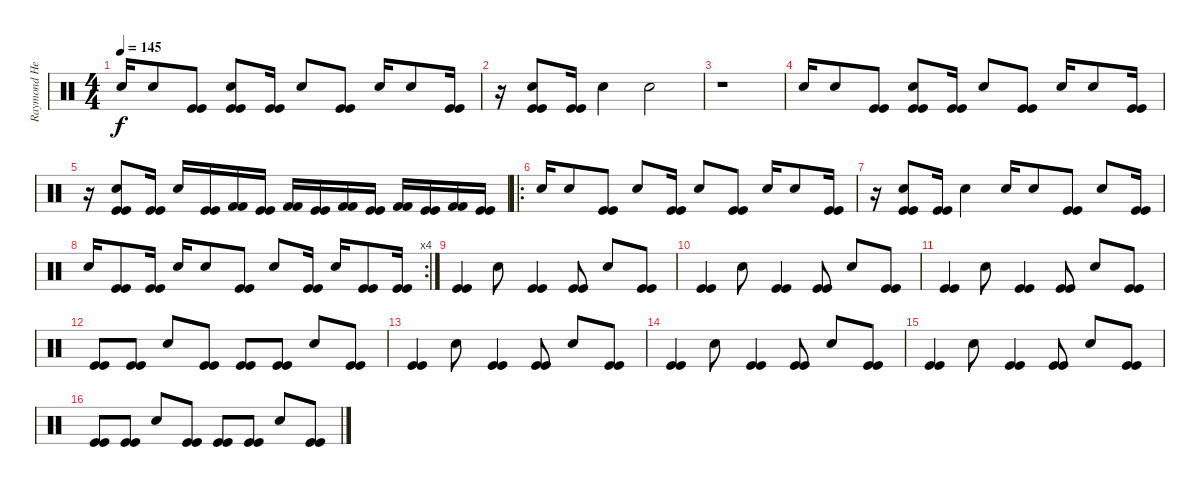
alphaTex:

\track ("Raymond Herrera" "Raymond He") {instrument percussion}
\staff {score}
\articulation defaults
\ts (4 4)
\tempo 145
\clef neutral
\ks c "Electric Snare (hit)".16{dy f} "Snare (hit) 2".8
("Kick (hit)" "Kick (hit)").8 ("Electric Snare (hit)" "Kick (hit)" "Kick (hit)").8 ("Kick (hit)" "Kick (hit)").16 "Electric Snare (hit)".8 ("Kick (hit)" "Kick (hit)").8 "Electric Snare (hit)".16 "Snare (hit) 2".8 ("Kick (hit)" "Kick (hit)").16 |
r.16 ("Electric Snare (hit)" "Kick (hit)" "Kick (hit)").8 ("Kick (hit)" "Kick (hit)").16 "Electric Snare (hit)".4 "Electric Snare (hit)".2 |
r.1 |
"Electric Snare (hit)".16 "Snare (hit) 2".8 ("Kick (hit)" "Kick (hit)").8 ("Electric Snare (hit)" "Kick (hit)" "Kick (hit)").8 ("Kick (hit)" "Kick (hit)").16 "Electric Snare (hit)".8 ("Kick (hit)" "Kick (hit)").8 "Electric Snare (hit)".16 "Snare (hit) 2".8 ("Kick (hit)" "Kick (hit)").16 |
r.16 ("Electric Snare (hit)" "Kick (hit)" "Kick (hit)").8 ("Kick (hit)" "Kick (hit)").16 "Electric Snare (hit)".16 ("Kick (hit)" "Kick (hit)").16 ("Kick (hit) 2" "Kick (hit) 2").16 ("Kick (hit)" "Kick (hit)").16 ("Kick (hit) 2" "Kick (hit) 2").16 ("Kick (hit)" "Kick (hit)").16 ("Kick (hit) 2" "Kick (hit) 2").16 ("Kick (hit)" "Kick (hit)").16 ("Kick (hit) 2" "Kick (hit) 2").16 ("Kick (hit)" "Kick (hit)").16 ("Kick (hit) 2" "Kick (hit) 2").16 ("Kick (hit)" "Kick (hit)").16 |
\ro "Electric Snare (hit)".16 "Snare (hit) 2".8
("Kick (hit)" "Kick (hit)").8 "Electric Snare (hit)".8 ("Kick (hit)" "Kick (hit)").16 "Electric Snare (hit)".8 ("Kick (hit)" "Kick (hit)").8 "Electric Snare (hit)".16 "Snare (hit) 2".8 ("Kick (hit)" "Kick (hit)").16 |
r.16 ("Electric Snare (hit)" "Kick (hit)" "Kick (hit)").8 ("Kick (hit)" "Kick (hit)").16 "Electric Snare (hit)".4 "Electric Snare (hit)".16 "Snare (hit) 2".8 ("Kick (hit)" "Kick (hit)").8 "Electric Snare (hit)".8 ("Kick (hit)" "Kick (hit)").16 |
\rc 4 "Electric Snare (hit)".16
("Kick (hit)" "Kick (hit)").8 ("Kick (hit)" "Kick (hit)").16 "Electric Snare (hit)".16 "Snare (hit) 2".8 ("Kick (hit)" "Kick (hit)").8 "Electric Snare (hit)".8 ("Kick (hit)" "Kick (hit)").16 "Electric Snare (hit)".16 ("Kick (hit)" "Kick (hit)").8 ("Kick (hit)" "Kick (hit)").16 |
("Kick (hit)" "Kick (hit)").4 "Electric Snare (hit)".8 ("Kick (hit)" "Kick (hit)").4 ("Kick (hit)" "Kick (hit)").8 "Electric Snare (hit)".8 ("Kick (hit)" "Kick (hit)").8 |
("Kick (hit)" "Kick (hit)").4 "Electric Snare (hit)".8 ("Kick (hit)" "Kick (hit)").4 ("Kick (hit)" "Kick (hit)").8 "Electric Snare (hit)".8 ("Kick (hit)" "Kick (hit)").8 |
("Kick (hit)" "Kick (hit)").4 "Electric Snare (hit)".8 ("Kick (hit)" "Kick (hit)").4 ("Kick (hit)" "Kick (hit)").8 "Electric Snare (hit)".8 ("Kick (hit)" "Kick (hit)").8 |
("Kick (hit)" "Kick (hit)").8 ("Kick (hit)" "Kick (hit)").8 "Electric Snare (hit)".8 ("Kick (hit)" "Kick (hit)").8 ("Kick (hit)" "Kick (hit)").8 ("Kick (hit)" "Kick (hit)").8 "Electric Snare (hit)".8 ("Kick (hit)" "Kick (hit)").8 |
("Kick (hit)" "Kick (hit)").4 "Electric Snare (hit)".8 ("Kick (hit)" "Kick (hit)").4 ("Kick (hit)" "Kick (hit)").8 "Electric Snare (hit)".8 ("Kick (hit)" "Kick (hit)").8 |
("Kick (hit)" "Kick (hit)").4 "Electric Snare (hit)".8 ("Kick (hit)" "Kick (hit)").4 ("Kick (hit)" "Kick (hit)").8 "Electric Snare (hit)".8 ("Kick (hit)" "Kick (hit)").8 |
("Kick (hit)" "Kick (hit)").4 "Electric Snare (hit)".8 ("Kick (hit)" "Kick (hit)").4 ("Kick (hit)" "Kick (hit)").8 "Electric Snare (hit)".8 ("Kick (hit)" "Kick (hit)").8 |
("Kick (hit)" "Kick (hit)").8 ("Kick (hit)" "Kick (hit)").8 "Electric Snare (hit)".8 ("Kick (hit)" "Kick (hit)").8 ("Kick (hit)" "Kick (hit)").8 ("Kick (hit)" "Kick (hit)").8 "Electric Snare (hit)".8 ("Kick (hit)" "Kick (hit)").8
